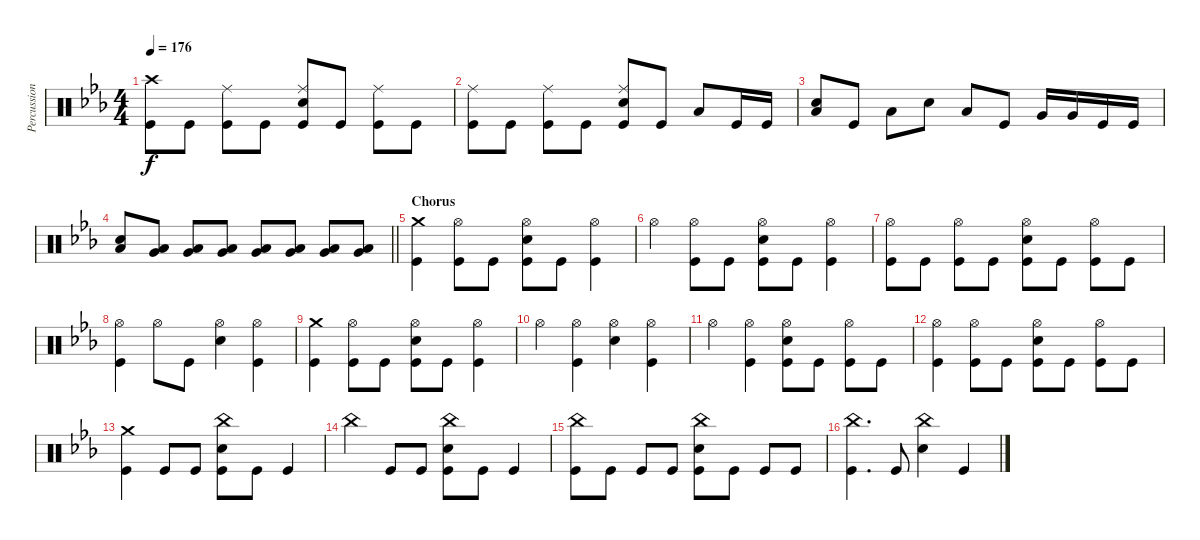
\track ("Percussion" "Percussion") {instrument percussion}
\staff {score}
\articulation defaults
\ts (4 4)
\tempo 176
\clef neutral
\ks eb
("Crash high (hit)" "Kick (hit)").8{dy f} "Kick (hit)".8 ("Ride (middle)" "Kick (hit)").8 "Kick (hit)".8 ("Ride (middle)" "Electric Snare (hit)" "Kick (hit)").8 "Kick (hit)".8 ("Ride (middle)" "Kick (hit)").8 "Kick (hit)".8 |
("Ride (middle)" "Kick (hit)").8 "Kick (hit)".8 ("Ride (middle)" "Kick (hit)").8 "Kick (hit)".8 ("Ride (middle)" "Electric Snare (hit)" "Kick (hit)").8 "Kick (hit)".8 "Low Tom (hit)".8 "Kick (hit)".16 "Kick (hit)".16 |
("Low Tom (hit)" "Electric Snare (hit)").8 "Kick (hit)".8 "Low Tom (hit)".8 "Electric Snare (hit)".8 "Low Tom (hit)".8 "Kick (hit)".8 "Very Low Tom (hit)".16 "Very Low Tom (hit)".16 "Kick (hit)".16 "Kick (hit)".16 |
\barLineRight lightlight
("Low Floor Tom (hit)" "Electric Snare (hit)").8 ("Very Low Tom (hit)" "Low Floor Tom (hit)").8 ("Very Low Tom (hit)" "Low Floor Tom (hit)").8 ("Very Low Tom (hit)" "Low Floor Tom (hit)").8 ("Very Low Tom (hit)" "Low Floor Tom (hit)").8 ("Very Low Tom (hit)" "Low Floor Tom (hit)").8 ("Very Low Tom (hit)" "Low Floor Tom (hit)").8 ("Very Low Tom (hit)" "Low Floor Tom (hit)").8 |
\section ("" "Chorus")
("Crash medium (hit)" "Kick (hit)").4 ("Hi-Hat (open)" "Kick (hit)").8 "Kick (hit)".8 ("Hi-Hat (open)" "Electric Snare (hit)" "Kick (hit)").8 "Kick (hit)".8 ("Hi-Hat (open)" "Kick (hit)").4 |
"Hi-Hat (open)".4 ("Hi-Hat (open)" "Kick (hit)").8 "Kick (hit)".8 ("Hi-Hat (open)" "Electric Snare (hit)" "Kick (hit)").8 "Kick (hit)".8 ("Hi-Hat (open)" "Kick (hit)").4 |
("Hi-Hat (open)" "Kick (hit)").8 "Kick (hit)".8 ("Hi-Hat (open)" "Kick (hit)").8 "Kick (hit)".8 ("Hi-Hat (open)" "Electric Snare (hit)" "Kick (hit)").8 "Kick (hit)".8 ("Hi-Hat (open)" "Kick (hit)").8 "Kick (hit)".8 |
("Hi-Hat (open)" "Kick (hit)").4 "Hi-Hat (open)".8 "Kick (hit)".8 ("Hi-Hat (open)" "Electric Snare (hit)").4 ("Hi-Hat (open)" "Kick (hit)").4 |
("Crash medium (hit)" "Kick (hit)").4 ("Hi-Hat (open)" "Kick (hit)").8 "Kick (hit)".8 ("Hi-Hat (open)" "Electric Snare (hit)" "Kick (hit)").8 "Kick (hit)".8 ("Hi-Hat (open)" "Kick (hit)").4 |
"Hi-Hat (open)".4 ("Hi-Hat (open)" "Kick (hit)").4 ("Hi-Hat (open)" "Electric Snare (hit)").4 ("Hi-Hat (open)" "Kick (hit)").4 |
"Hi-Hat (open)".4 ("Hi-Hat (open)" "Kick (hit)").4 ("Hi-Hat (open)" "Electric Snare (hit)" "Kick (hit)").8 "Kick (hit)".8 ("Hi-Hat (open)" "Kick (hit)").8 "Kick (hit)".8 |
("Hi-Hat (open)" "Kick (hit)").4 ("Hi-Hat (open)" "Kick (hit)").8 "Kick (hit)".8 ("Hi-Hat (open)" "Electric Snare (hit)" "Kick (hit)").8 "Kick (hit)".8 ("Hi-Hat (open)" "Kick (hit)").8 "Kick (hit)".8 |
("Crash medium (hit)" "Kick (hit)").4 "Kick (hit)".8 "Kick (hit)".8 ("China (hit)" "Electric Snare (hit)" "Kick (hit)").8 "Kick (hit)".8 "Kick (hit)".4 |
"China (hit)".4 "Kick (hit)".8 "Kick (hit)".8 ("China (hit)" "Electric Snare (hit)" "Kick (hit)").8 "Kick (hit)".8 "Kick (hit)".4 |
("China (hit)" "Kick (hit)").8 "Kick (hit)".8 "Kick (hit)".8 "Kick (hit)".8 ("China (hit)" "Electric Snare (hit)" "Kick (hit)").8 "Kick (hit)".8 "Kick (hit)".8 "Kick (hit)".8 |
("China (hit)" "Kick (hit)").4{d} "Kick (hit)".8 ("China (hit)" "Electric Snare (hit)").4 "Kick (hit)".4
